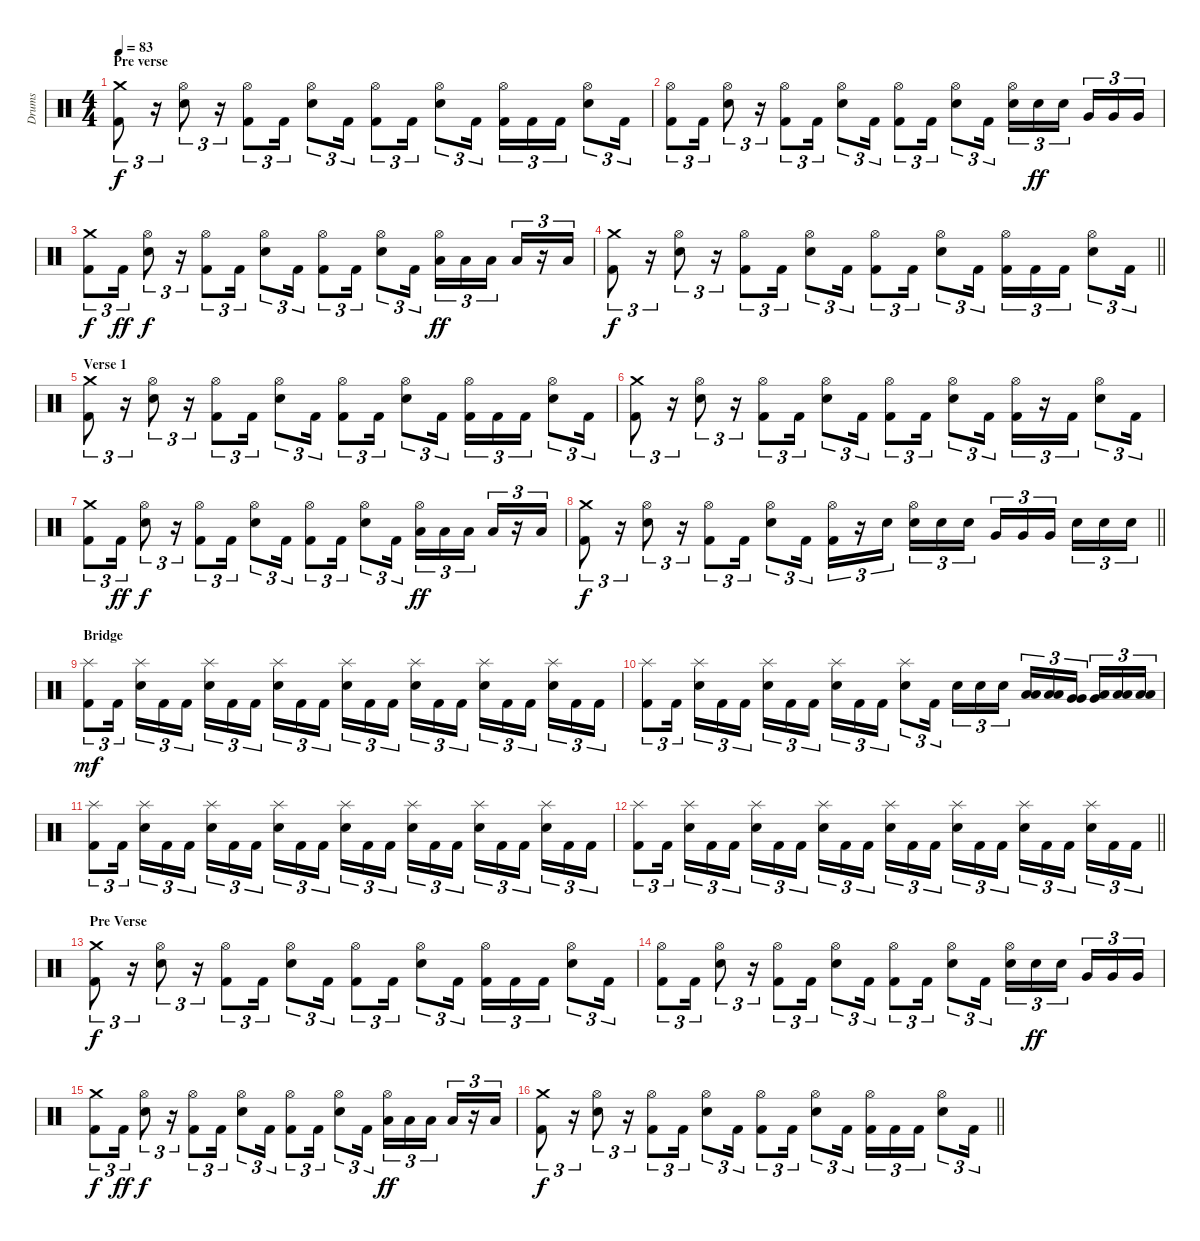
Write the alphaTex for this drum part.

\track ("Drums " "Drums ") {instrument percussion}
\staff {score}
\articulation defaults
\ts (4 4)
\section ("" "Pre verse")
\tempo 83
\clef neutral
\ks c
("Crash medium (hit)" "Kick (hit) 2").8{tu (3 2) dy f} r.16{tu (3 2)} ("Hi-Hat (open)" "Snare (hit) 2").8{tu (3 2)} r.16{tu (3 2)} ("Hi-Hat (open)" "Kick (hit) 2").8{tu (3 2)} "Kick (hit) 2".16{tu (3 2)} ("Hi-Hat (open)" "Snare (hit) 2").8{tu (3 2)} "Kick (hit) 2".16{tu (3 2)} ("Hi-Hat (open)" "Kick (hit) 2").8{tu (3 2)} "Kick (hit) 2".16{tu (3 2)} ("Hi-Hat (open)" "Snare (hit) 2").8{tu (3 2)} "Kick (hit) 2".16{tu (3 2)} ("Hi-Hat (open)" "Kick (hit) 2").16{tu (3 2)} "Kick (hit) 2".16{tu (3 2)} "Kick (hit) 2".16{tu (3 2)} ("Hi-Hat (open)" "Snare (hit) 2").8{tu (3 2)} "Kick (hit) 2".16{tu (3 2)} |
("Hi-Hat (open)" "Kick (hit) 2").8{tu (3 2)} "Kick (hit) 2".16{tu (3 2)} ("Hi-Hat (open)" "Snare (hit) 2").8{tu (3 2)} r.16{tu (3 2)} ("Hi-Hat (open)" "Kick (hit) 2").8{tu (3 2)} "Kick (hit) 2".16{tu (3 2)} ("Hi-Hat (open)" "Snare (hit) 2").8{tu (3 2)} "Kick (hit) 2".16{tu (3 2)} ("Hi-Hat (open)" "Kick (hit) 2").8{tu (3 2)} "Kick (hit) 2".16{tu (3 2)} ("Hi-Hat (open)" "Snare (hit) 2").8{tu (3 2)} "Kick (hit) 2".16{tu (3 2)} ("Hi-Hat (open)" "Snare (hit) 2").16{tu (3 2)} "Snare (hit) 2".16{tu (3 2) dy ff} "Snare (hit) 2".16{tu (3 2) beam splitsecondary} "Very Low Tom (hit)".16{tu (3 2)} "Very Low Tom (hit)".16{tu (3 2)} "Very Low Tom (hit)".16{tu (3 2)} |
("Crash medium (hit)" "Kick (hit) 2").8{tu (3 2) dy f} "Kick (hit) 2".16{tu (3 2) dy ff} ("Hi-Hat (open)" "Snare (hit) 2").8{tu (3 2) dy f} r.16{tu (3 2)} ("Hi-Hat (open)" "Kick (hit) 2").8{tu (3 2)} "Kick (hit) 2".16{tu (3 2)} ("Hi-Hat (open)" "Snare (hit) 2").8{tu (3 2)} "Kick (hit) 2".16{tu (3 2)} ("Hi-Hat (open)" "Kick (hit) 2").8{tu (3 2)} "Kick (hit) 2".16{tu (3 2)} ("Hi-Hat (open)" "Snare (hit) 2").8{tu (3 2)} "Kick (hit) 2".16{tu (3 2)} ("Hi-Hat (open)" "Low Tom (hit)").16{tu (3 2) dy ff} "Low Tom (hit)".16{tu (3 2)} "Low Tom (hit)".16{tu (3 2) beam splitsecondary} "Low Floor Tom (hit)".16{tu (3 2)} r.16{tu (3 2)} "Low Floor Tom (hit)".16{tu (3 2)} |
\barLineRight lightlight
("Crash medium (hit)" "Kick (hit) 2").8{tu (3 2) dy f} r.16{tu (3 2)} ("Hi-Hat (open)" "Snare (hit) 2").8{tu (3 2)} r.16{tu (3 2)} ("Hi-Hat (open)" "Kick (hit) 2").8{tu (3 2)} "Kick (hit) 2".16{tu (3 2)} ("Hi-Hat (open)" "Snare (hit) 2").8{tu (3 2)} "Kick (hit) 2".16{tu (3 2)} ("Hi-Hat (open)" "Kick (hit) 2").8{tu (3 2)} "Kick (hit) 2".16{tu (3 2)} ("Hi-Hat (open)" "Snare (hit) 2").8{tu (3 2)} "Kick (hit) 2".16{tu (3 2)} ("Hi-Hat (open)" "Kick (hit) 2").16{tu (3 2)} "Kick (hit) 2".16{tu (3 2)} "Kick (hit) 2".16{tu (3 2)} ("Hi-Hat (open)" "Snare (hit) 2").8{tu (3 2)} "Kick (hit) 2".16{tu (3 2)} |
\section ("" "Verse 1")
("Crash medium (hit)" "Kick (hit) 2").8{tu (3 2)} r.16{tu (3 2)} ("Hi-Hat (open)" "Snare (hit) 2").8{tu (3 2)} r.16{tu (3 2)} ("Hi-Hat (open)" "Kick (hit) 2").8{tu (3 2)} "Kick (hit) 2".16{tu (3 2)} ("Hi-Hat (open)" "Snare (hit) 2").8{tu (3 2)} "Kick (hit) 2".16{tu (3 2)} ("Hi-Hat (open)" "Kick (hit) 2").8{tu (3 2)} "Kick (hit) 2".16{tu (3 2)} ("Hi-Hat (open)" "Snare (hit) 2").8{tu (3 2)} "Kick (hit) 2".16{tu (3 2)} ("Hi-Hat (open)" "Kick (hit) 2").16{tu (3 2)} "Kick (hit) 2".16{tu (3 2)} "Kick (hit) 2".16{tu (3 2)} ("Hi-Hat (open)" "Snare (hit) 2").8{tu (3 2)} "Kick (hit) 2".16{tu (3 2)} |
("Crash medium (hit)" "Kick (hit) 2").8{tu (3 2)} r.16{tu (3 2)} ("Hi-Hat (open)" "Snare (hit) 2").8{tu (3 2)} r.16{tu (3 2)} ("Hi-Hat (open)" "Kick (hit) 2").8{tu (3 2)} "Kick (hit) 2".16{tu (3 2)} ("Hi-Hat (open)" "Snare (hit) 2").8{tu (3 2)} "Kick (hit) 2".16{tu (3 2)} ("Hi-Hat (open)" "Kick (hit) 2").8{tu (3 2)} "Kick (hit) 2".16{tu (3 2)} ("Hi-Hat (open)" "Snare (hit) 2").8{tu (3 2)} "Kick (hit) 2".16{tu (3 2)} ("Hi-Hat (open)" "Kick (hit) 2").16{tu (3 2)} r.16{tu (3 2)} "Kick (hit) 2".16{tu (3 2)} ("Hi-Hat (open)" "Snare (hit) 2").8{tu (3 2)} "Kick (hit) 2".16{tu (3 2)} |
("Crash medium (hit)" "Kick (hit) 2").8{tu (3 2)} "Kick (hit) 2".16{tu (3 2) dy ff} ("Hi-Hat (open)" "Snare (hit) 2").8{tu (3 2) dy f} r.16{tu (3 2)} ("Hi-Hat (open)" "Kick (hit) 2").8{tu (3 2)} "Kick (hit) 2".16{tu (3 2)} ("Hi-Hat (open)" "Snare (hit) 2").8{tu (3 2)} "Kick (hit) 2".16{tu (3 2)} ("Hi-Hat (open)" "Kick (hit) 2").8{tu (3 2)} "Kick (hit) 2".16{tu (3 2)} ("Hi-Hat (open)" "Snare (hit) 2").8{tu (3 2)} "Kick (hit) 2".16{tu (3 2)} ("Hi-Hat (open)" "Low Tom (hit)").16{tu (3 2) dy ff} "Low Tom (hit)".16{tu (3 2)} "Low Tom (hit)".16{tu (3 2) beam splitsecondary} "Low Floor Tom (hit)".16{tu (3 2)} r.16{tu (3 2)} "Low Floor Tom (hit)".16{tu (3 2)} |
\barLineRight lightlight
("Crash medium (hit)" "Kick (hit) 2").8{tu (3 2) dy f} r.16{tu (3 2)} ("Hi-Hat (open)" "Snare (hit) 2").8{tu (3 2)} r.16{tu (3 2)} ("Hi-Hat (open)" "Kick (hit) 2").8{tu (3 2)} "Kick (hit) 2".16{tu (3 2)} ("Hi-Hat (open)" "Snare (hit) 2").8{tu (3 2)} "Kick (hit) 2".16{tu (3 2)} ("Hi-Hat (open)" "Kick (hit) 2").16{tu (3 2)} r.16{tu (3 2)} "Snare (hit) 2".16{tu (3 2) beam splitsecondary} ("Hi-Hat (open)" "Snare (hit) 2").16{tu (3 2)} "Snare (hit) 2".16{tu (3 2)} "Snare (hit) 2".16{tu (3 2)} "Very Low Tom (hit)".16{tu (3 2)} "Very Low Tom (hit)".16{tu (3 2)} "Very Low Tom (hit)".16{tu (3 2) beam splitsecondary} "Snare (hit) 2".16{tu (3 2)} "Snare (hit) 2".16{tu (3 2)} "Snare (hit) 2".16{tu (3 2)} |
\section ("" "Bridge")
("Splash (hit)" "Kick (hit) 2").8{tu (3 2) dy mf volume 15} "Kick (hit) 2".16{tu (3 2) beam splitsecondary} ("Splash (hit)" "Snare (hit) 2").16{tu (3 2)} "Kick (hit) 2".16{tu (3 2)} "Kick (hit) 2".16{tu (3 2)} ("Splash (hit)" "Snare (hit) 2").16{tu (3 2)} "Kick (hit) 2".16{tu (3 2)} "Kick (hit) 2".16{tu (3 2) beam splitsecondary} ("Splash (hit)" "Snare (hit) 2").16{tu (3 2)} "Kick (hit) 2".16{tu (3 2)} "Kick (hit) 2".16{tu (3 2)} ("Splash (hit)" "Snare (hit) 2").16{tu (3 2)} "Kick (hit) 2".16{tu (3 2)} "Kick (hit) 2".16{tu (3 2) beam splitsecondary} ("Splash (hit)" "Snare (hit) 2").16{tu (3 2)} "Kick (hit) 2".16{tu (3 2)} "Kick (hit) 2".16{tu (3 2)} ("Splash (hit)" "Snare (hit) 2").16{tu (3 2)} "Kick (hit) 2".16{tu (3 2)} "Kick (hit) 2".16{tu (3 2) beam splitsecondary} ("Splash (hit)" "Snare (hit) 2").16{tu (3 2)} "Kick (hit) 2".16{tu (3 2)} "Kick (hit) 2".16{tu (3 2)} |
("Splash (hit)" "Kick (hit) 2").8{tu (3 2)} "Kick (hit) 2".16{tu (3 2) beam splitsecondary} ("Splash (hit)" "Snare (hit) 2").16{tu (3 2)} "Kick (hit) 2".16{tu (3 2)} "Kick (hit) 2".16{tu (3 2)} ("Splash (hit)" "Snare (hit) 2").16{tu (3 2)} "Kick (hit) 2".16{tu (3 2)} "Kick (hit) 2".16{tu (3 2) beam splitsecondary} ("Splash (hit)" "Snare (hit) 2").16{tu (3 2)} "Kick (hit) 2".16{tu (3 2)} "Kick (hit) 2".16{tu (3 2)} ("Splash (hit)" "Snare (hit) 2").8{tu (3 2)} "Kick (hit) 2".16{tu (3 2) beam splitsecondary} "Snare (hit) 2".16{tu (3 2)} "Snare (hit) 2".16{tu (3 2)} "Snare (hit) 2".16{tu (3 2)} ("Low Tom (hit)" "Low Tom (hit)").16{tu (3 2)} ("Low Tom (hit)" "Low Tom (hit)").16{tu (3 2)} ("Very Low Tom (hit)" "Very Low Tom (hit)").16{tu (3 2) beam splitsecondary} ("Very Low Tom (hit)" "Low Floor Tom (hit)").16{tu (3 2)} ("Low Floor Tom (hit)" "Low Floor Tom (hit)").16{tu (3 2)} ("Low Floor Tom (hit)" "Low Floor Tom (hit)").16{tu (3 2)} |
("Splash (hit)" "Kick (hit) 2").8{tu (3 2)} "Kick (hit) 2".16{tu (3 2) beam splitsecondary} ("Splash (hit)" "Snare (hit) 2").16{tu (3 2)} "Kick (hit) 2".16{tu (3 2)} "Kick (hit) 2".16{tu (3 2)} ("Splash (hit)" "Snare (hit) 2").16{tu (3 2)} "Kick (hit) 2".16{tu (3 2)} "Kick (hit) 2".16{tu (3 2) beam splitsecondary} ("Splash (hit)" "Snare (hit) 2").16{tu (3 2)} "Kick (hit) 2".16{tu (3 2)} "Kick (hit) 2".16{tu (3 2)} ("Splash (hit)" "Snare (hit) 2").16{tu (3 2)} "Kick (hit) 2".16{tu (3 2)} "Kick (hit) 2".16{tu (3 2) beam splitsecondary} ("Splash (hit)" "Snare (hit) 2").16{tu (3 2)} "Kick (hit) 2".16{tu (3 2)} "Kick (hit) 2".16{tu (3 2)} ("Splash (hit)" "Snare (hit) 2").16{tu (3 2)} "Kick (hit) 2".16{tu (3 2)} "Kick (hit) 2".16{tu (3 2) beam splitsecondary} ("Splash (hit)" "Snare (hit) 2").16{tu (3 2)} "Kick (hit) 2".16{tu (3 2)} "Kick (hit) 2".16{tu (3 2)} |
\barLineRight lightlight
("Splash (hit)" "Kick (hit) 2").8{tu (3 2)} "Kick (hit) 2".16{tu (3 2) beam splitsecondary} ("Splash (hit)" "Snare (hit) 2").16{tu (3 2)} "Kick (hit) 2".16{tu (3 2)} "Kick (hit) 2".16{tu (3 2)} ("Splash (hit)" "Snare (hit) 2").16{tu (3 2)} "Kick (hit) 2".16{tu (3 2)} "Kick (hit) 2".16{tu (3 2) beam splitsecondary} ("Splash (hit)" "Snare (hit) 2").16{tu (3 2)} "Kick (hit) 2".16{tu (3 2)} "Kick (hit) 2".16{tu (3 2)} ("Splash (hit)" "Snare (hit) 2").16{tu (3 2)} "Kick (hit) 2".16{tu (3 2)} "Kick (hit) 2".16{tu (3 2) beam splitsecondary} ("Splash (hit)" "Snare (hit) 2").16{tu (3 2)} "Kick (hit) 2".16{tu (3 2)} "Kick (hit) 2".16{tu (3 2)} ("Splash (hit)" "Snare (hit) 2").16{tu (3 2)} "Kick (hit) 2".16{tu (3 2)} "Kick (hit) 2".16{tu (3 2) beam splitsecondary} ("Splash (hit)" "Snare (hit) 2").16{tu (3 2)} "Kick (hit) 2".16{tu (3 2)} "Kick (hit) 2".16{tu (3 2)} |
\section ("" "Pre Verse")
("Crash medium (hit)" "Kick (hit) 2").8{tu (3 2) dy f volume 14} r.16{tu (3 2)} ("Hi-Hat (open)" "Snare (hit) 2").8{tu (3 2)} r.16{tu (3 2)} ("Hi-Hat (open)" "Kick (hit) 2").8{tu (3 2)} "Kick (hit) 2".16{tu (3 2)} ("Hi-Hat (open)" "Snare (hit) 2").8{tu (3 2)} "Kick (hit) 2".16{tu (3 2)} ("Hi-Hat (open)" "Kick (hit) 2").8{tu (3 2)} "Kick (hit) 2".16{tu (3 2)} ("Hi-Hat (open)" "Snare (hit) 2").8{tu (3 2)} "Kick (hit) 2".16{tu (3 2)} ("Hi-Hat (open)" "Kick (hit) 2").16{tu (3 2)} "Kick (hit) 2".16{tu (3 2)} "Kick (hit) 2".16{tu (3 2)} ("Hi-Hat (open)" "Snare (hit) 2").8{tu (3 2)} "Kick (hit) 2".16{tu (3 2)} |
("Hi-Hat (open)" "Kick (hit) 2").8{tu (3 2)} "Kick (hit) 2".16{tu (3 2)} ("Hi-Hat (open)" "Snare (hit) 2").8{tu (3 2)} r.16{tu (3 2)} ("Hi-Hat (open)" "Kick (hit) 2").8{tu (3 2)} "Kick (hit) 2".16{tu (3 2)} ("Hi-Hat (open)" "Snare (hit) 2").8{tu (3 2)} "Kick (hit) 2".16{tu (3 2)} ("Hi-Hat (open)" "Kick (hit) 2").8{tu (3 2)} "Kick (hit) 2".16{tu (3 2)} ("Hi-Hat (open)" "Snare (hit) 2").8{tu (3 2)} "Kick (hit) 2".16{tu (3 2)} ("Hi-Hat (open)" "Snare (hit) 2").16{tu (3 2)} "Snare (hit) 2".16{tu (3 2) dy ff} "Snare (hit) 2".16{tu (3 2) beam splitsecondary} "Very Low Tom (hit)".16{tu (3 2)} "Very Low Tom (hit)".16{tu (3 2)} "Very Low Tom (hit)".16{tu (3 2)} |
("Crash medium (hit)" "Kick (hit) 2").8{tu (3 2) dy f} "Kick (hit) 2".16{tu (3 2) dy ff} ("Hi-Hat (open)" "Snare (hit) 2").8{tu (3 2) dy f} r.16{tu (3 2)} ("Hi-Hat (open)" "Kick (hit) 2").8{tu (3 2)} "Kick (hit) 2".16{tu (3 2)} ("Hi-Hat (open)" "Snare (hit) 2").8{tu (3 2)} "Kick (hit) 2".16{tu (3 2)} ("Hi-Hat (open)" "Kick (hit) 2").8{tu (3 2)} "Kick (hit) 2".16{tu (3 2)} ("Hi-Hat (open)" "Snare (hit) 2").8{tu (3 2)} "Kick (hit) 2".16{tu (3 2)} ("Hi-Hat (open)" "Low Tom (hit)").16{tu (3 2) dy ff} "Low Tom (hit)".16{tu (3 2)} "Low Tom (hit)".16{tu (3 2) beam splitsecondary} "Low Floor Tom (hit)".16{tu (3 2)} r.16{tu (3 2)} "Low Floor Tom (hit)".16{tu (3 2)} |
\barLineRight lightlight
("Crash medium (hit)" "Kick (hit) 2").8{tu (3 2) dy f} r.16{tu (3 2)} ("Hi-Hat (open)" "Snare (hit) 2").8{tu (3 2)} r.16{tu (3 2)} ("Hi-Hat (open)" "Kick (hit) 2").8{tu (3 2)} "Kick (hit) 2".16{tu (3 2)} ("Hi-Hat (open)" "Snare (hit) 2").8{tu (3 2)} "Kick (hit) 2".16{tu (3 2)} ("Hi-Hat (open)" "Kick (hit) 2").8{tu (3 2)} "Kick (hit) 2".16{tu (3 2)} ("Hi-Hat (open)" "Snare (hit) 2").8{tu (3 2)} "Kick (hit) 2".16{tu (3 2)} ("Hi-Hat (open)" "Kick (hit) 2").16{tu (3 2)} "Kick (hit) 2".16{tu (3 2)} "Kick (hit) 2".16{tu (3 2)} ("Hi-Hat (open)" "Snare (hit) 2").8{tu (3 2)} "Kick (hit) 2".16{tu (3 2)}
